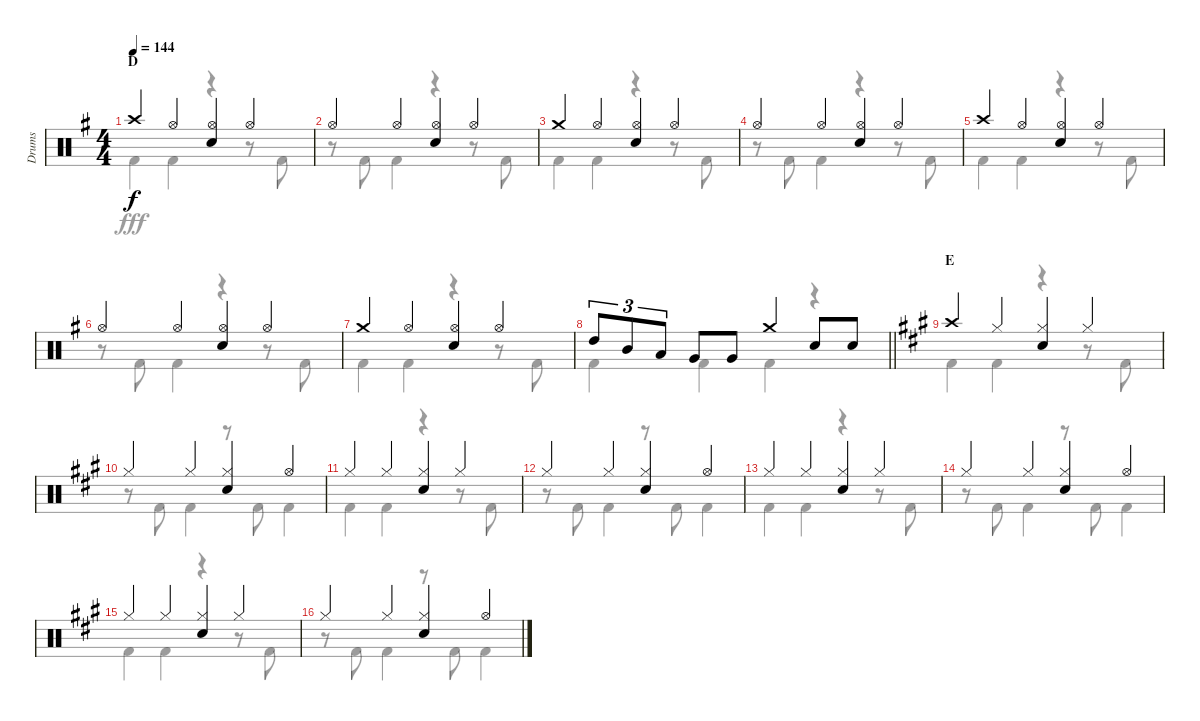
\track ("Drums" "Drums") {instrument percussion}
\staff {score}
\articulation defaults
\voice
\ts (4 4)
\section ("" "D")
\tempo 144
\clef neutral
\ks g "Crash high (hit)".4{dy f} "Hi-Hat (open)".4
("Hi-Hat (open)" "Snare (hit) 2").4 "Hi-Hat (open)".4 |
"Hi-Hat (open)".4 "Hi-Hat (open)".4 ("Hi-Hat (open)" "Snare (hit) 2").4 "Hi-Hat (open)".4 |
"Crash medium (hit)".4 "Hi-Hat (open)".4 ("Hi-Hat (open)" "Snare (hit) 2").4 "Hi-Hat (open)".4 |
"Hi-Hat (open)".4 "Hi-Hat (open)".4 ("Hi-Hat (open)" "Snare (hit) 2").4 "Hi-Hat (open)".4 |
"Crash high (hit)".4 "Hi-Hat (open)".4 ("Hi-Hat (open)" "Snare (hit) 2").4 "Hi-Hat (open)".4 |
"Hi-Hat (open)".4 "Hi-Hat (open)".4 ("Hi-Hat (open)" "Snare (hit) 2").4 "Hi-Hat (open)".4 |
"Crash medium (hit)".4 "Hi-Hat (open)".4 ("Hi-Hat (open)" "Snare (hit) 2").4 "Hi-Hat (open)".4 |
\barLineRight lightlight "High Tom (hit)".8{tu (3 2)} "Mid Tom (hit)".8{tu (3 2)} "Low Tom (hit)".8{tu (3 2)} "Very Low Tom (hit)".8 "Very Low Tom (hit)".8 "Crash medium (hit)".4 "Snare (hit) 2".8 "Snare (hit) 2".8
|
\section ("" "E")
\ks a "Crash high (hit)".4 "Hi-Hat (closed)".4
("Hi-Hat (closed)" "Snare (hit) 2").4 "Hi-Hat (closed)".4 |
"Hi-Hat (closed)".4 "Hi-Hat (closed)".4 ("Hi-Hat (closed)" "Snare (hit) 2").4 "Hi-Hat (open)".4 |
"Hi-Hat (closed)".4 "Hi-Hat (closed)".4 ("Hi-Hat (closed)" "Snare (hit) 2").4 "Hi-Hat (closed)".4 |
"Hi-Hat (closed)".4 "Hi-Hat (closed)".4 ("Hi-Hat (closed)" "Snare (hit) 2").4 "Hi-Hat (open)".4 |
"Hi-Hat (closed)".4 "Hi-Hat (closed)".4 ("Hi-Hat (closed)" "Snare (hit) 2").4 "Hi-Hat (closed)".4 |
"Hi-Hat (closed)".4 "Hi-Hat (closed)".4 ("Hi-Hat (closed)" "Snare (hit) 2").4 "Hi-Hat (open)".4 |
"Hi-Hat (closed)".4 "Hi-Hat (closed)".4 ("Hi-Hat (closed)" "Snare (hit) 2").4 "Hi-Hat (closed)".4 |
"Hi-Hat (closed)".4 "Hi-Hat (closed)".4 ("Hi-Hat (closed)" "Snare (hit) 2").4 "Hi-Hat (open)".4
\voice
\clef neutral
\ottava regular
\simile none
\ks g "Kick (hit) 2".4{dy fff} "Kick (hit) 2".4
r.4 r.8 "Kick (hit) 2".8 |
r.8 "Kick (hit) 2".8 "Kick (hit) 2".4 r.4 r.8 "Kick (hit) 2".8 |
"Kick (hit) 2".4 "Kick (hit) 2".4 r.4 r.8 "Kick (hit) 2".8 |
r.8 "Kick (hit) 2".8 "Kick (hit) 2".4 r.4 r.8 "Kick (hit) 2".8 |
"Kick (hit) 2".4 "Kick (hit) 2".4 r.4 r.8 "Kick (hit) 2".8 |
r.8 "Kick (hit) 2".8 "Kick (hit) 2".4 r.4 r.8 "Kick (hit) 2".8 |
"Kick (hit) 2".4 "Kick (hit) 2".4 r.4 r.8 "Kick (hit) 2".8 |
\barLineRight lightlight "Kick (hit) 2".4 "Kick (hit) 2".4 "Kick (hit) 2".4
r.4 |
\ks a "Kick (hit) 2".4 "Kick (hit) 2".4
r.4 r.8 "Kick (hit) 2".8 |
r.8 "Kick (hit) 2".8 "Kick (hit) 2".4 r.8 "Kick (hit) 2".8 "Kick (hit) 2".4 |
"Kick (hit) 2".4 "Kick (hit) 2".4 r.4 r.8 "Kick (hit) 2".8 |
r.8 "Kick (hit) 2".8 "Kick (hit) 2".4 r.8 "Kick (hit) 2".8 "Kick (hit) 2".4 |
"Kick (hit) 2".4 "Kick (hit) 2".4 r.4 r.8 "Kick (hit) 2".8 |
r.8 "Kick (hit) 2".8 "Kick (hit) 2".4 r.8 "Kick (hit) 2".8 "Kick (hit) 2".4 |
"Kick (hit) 2".4 "Kick (hit) 2".4 r.4 r.8 "Kick (hit) 2".8 |
r.8 "Kick (hit) 2".8 "Kick (hit) 2".4 r.8 "Kick (hit) 2".8 "Kick (hit) 2".4
